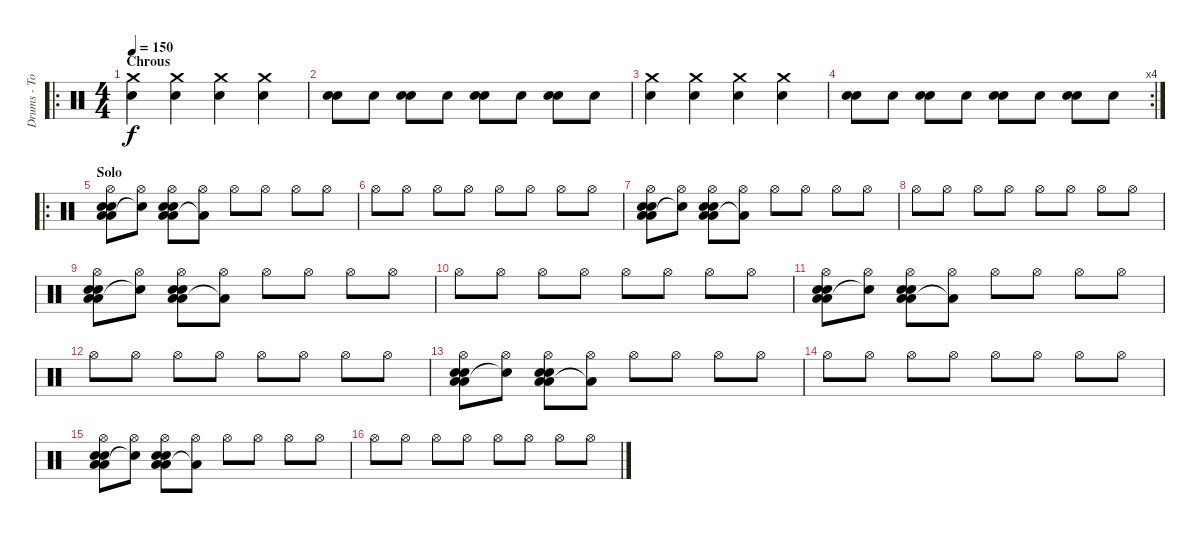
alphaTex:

\track ("Drums - Tom" "Drums - To") {instrument percussion}
\staff {score}
\articulation defaults
\ro
\ts (4 4)
\section ("" "Chrous")
\tempo 150
\clef neutral
\ks c
("Snare (hit) 2" "Crash medium (hit)").4{dy f} ("Snare (hit) 2" "Crash medium (hit)").4 ("Snare (hit) 2" "Crash medium (hit)").4 ("Snare (hit) 2" "Crash medium (hit)").4 |
("Snare (hit) 2" "Electric Snare (hit)").8 "Snare (hit) 2".8 ("Snare (hit) 2" "Electric Snare (hit)").8 "Snare (hit) 2".8 ("Snare (hit) 2" "Electric Snare (hit)").8 "Snare (hit) 2".8 ("Snare (hit) 2" "Electric Snare (hit)").8 "Snare (hit) 2".8 |
("Snare (hit) 2" "Crash medium (hit)").4 ("Snare (hit) 2" "Crash medium (hit)").4 ("Snare (hit) 2" "Crash medium (hit)").4 ("Snare (hit) 2" "Crash medium (hit)").4 |
\rc 4
("Snare (hit) 2" "Electric Snare (hit)").8 "Snare (hit) 2".8 ("Snare (hit) 2" "Electric Snare (hit)").8 "Snare (hit) 2".8 ("Snare (hit) 2" "Electric Snare (hit)").8 "Snare (hit) 2".8 ("Snare (hit) 2" "Electric Snare (hit)").8 "Snare (hit) 2".8 |
\ro
\section ("" "Solo")
("Hi-Hat (open)" "Low Floor Tom (hit)" "Low Floor Tom (hit)" "Snare (hit) 2" "Snare (hit) 2").8 ("Hi-Hat (open)" "Snare (hit)"{t}).8 ("Hi-Hat (open)" "Low Floor Tom (hit)" "Low Floor Tom (hit)" "Snare (hit) 2" "Snare (hit) 2").8 ("Hi-Hat (open)" "Low Floor Tom (hit)"{t}).8 "Hi-Hat (open)".8 "Hi-Hat (open)".8 "Hi-Hat (open)".8 "Hi-Hat (open)".8 |
"Hi-Hat (open)".8 "Hi-Hat (open)".8 "Hi-Hat (open)".8 "Hi-Hat (open)".8 "Hi-Hat (open)".8 "Hi-Hat (open)".8 "Hi-Hat (open)".8 "Hi-Hat (open)".8 |
("Hi-Hat (open)" "Low Floor Tom (hit)" "Low Floor Tom (hit)" "Snare (hit) 2" "Snare (hit) 2").8 ("Hi-Hat (open)" "Snare (hit)"{t}).8 ("Hi-Hat (open)" "Low Floor Tom (hit)" "Low Floor Tom (hit)" "Snare (hit) 2" "Snare (hit) 2").8 ("Hi-Hat (open)" "Low Floor Tom (hit)"{t}).8 "Hi-Hat (open)".8 "Hi-Hat (open)".8 "Hi-Hat (open)".8 "Hi-Hat (open)".8 |
"Hi-Hat (open)".8 "Hi-Hat (open)".8 "Hi-Hat (open)".8 "Hi-Hat (open)".8 "Hi-Hat (open)".8 "Hi-Hat (open)".8 "Hi-Hat (open)".8 "Hi-Hat (open)".8 |
("Hi-Hat (open)" "Low Floor Tom (hit)" "Low Floor Tom (hit)" "Snare (hit) 2" "Snare (hit) 2").8 ("Hi-Hat (open)" "Snare (hit)"{t}).8 ("Hi-Hat (open)" "Low Floor Tom (hit)" "Low Floor Tom (hit)" "Snare (hit) 2" "Snare (hit) 2").8 ("Hi-Hat (open)" "Low Floor Tom (hit)"{t}).8 "Hi-Hat (open)".8 "Hi-Hat (open)".8 "Hi-Hat (open)".8 "Hi-Hat (open)".8 |
"Hi-Hat (open)".8 "Hi-Hat (open)".8 "Hi-Hat (open)".8 "Hi-Hat (open)".8 "Hi-Hat (open)".8 "Hi-Hat (open)".8 "Hi-Hat (open)".8 "Hi-Hat (open)".8 |
("Hi-Hat (open)" "Low Floor Tom (hit)" "Low Floor Tom (hit)" "Snare (hit) 2" "Snare (hit) 2").8 ("Hi-Hat (open)" "Snare (hit)"{t}).8 ("Hi-Hat (open)" "Low Floor Tom (hit)" "Low Floor Tom (hit)" "Snare (hit) 2" "Snare (hit) 2").8 ("Hi-Hat (open)" "Low Floor Tom (hit)"{t}).8 "Hi-Hat (open)".8 "Hi-Hat (open)".8 "Hi-Hat (open)".8 "Hi-Hat (open)".8 |
"Hi-Hat (open)".8 "Hi-Hat (open)".8 "Hi-Hat (open)".8 "Hi-Hat (open)".8 "Hi-Hat (open)".8 "Hi-Hat (open)".8 "Hi-Hat (open)".8 "Hi-Hat (open)".8 |
("Hi-Hat (open)" "Low Floor Tom (hit)" "Low Floor Tom (hit)" "Snare (hit) 2" "Snare (hit) 2").8 ("Hi-Hat (open)" "Snare (hit)"{t}).8 ("Hi-Hat (open)" "Low Floor Tom (hit)" "Low Floor Tom (hit)" "Snare (hit) 2" "Snare (hit) 2").8 ("Hi-Hat (open)" "Low Floor Tom (hit)"{t}).8 "Hi-Hat (open)".8 "Hi-Hat (open)".8 "Hi-Hat (open)".8 "Hi-Hat (open)".8 |
"Hi-Hat (open)".8 "Hi-Hat (open)".8 "Hi-Hat (open)".8 "Hi-Hat (open)".8 "Hi-Hat (open)".8 "Hi-Hat (open)".8 "Hi-Hat (open)".8 "Hi-Hat (open)".8 |
("Hi-Hat (open)" "Low Floor Tom (hit)" "Low Floor Tom (hit)" "Snare (hit) 2" "Snare (hit) 2").8 ("Hi-Hat (open)" "Snare (hit)"{t}).8 ("Hi-Hat (open)" "Low Floor Tom (hit)" "Low Floor Tom (hit)" "Snare (hit) 2" "Snare (hit) 2").8 ("Hi-Hat (open)" "Low Floor Tom (hit)"{t}).8 "Hi-Hat (open)".8 "Hi-Hat (open)".8 "Hi-Hat (open)".8 "Hi-Hat (open)".8 |
"Hi-Hat (open)".8 "Hi-Hat (open)".8 "Hi-Hat (open)".8 "Hi-Hat (open)".8 "Hi-Hat (open)".8 "Hi-Hat (open)".8 "Hi-Hat (open)".8 "Hi-Hat (open)".8
